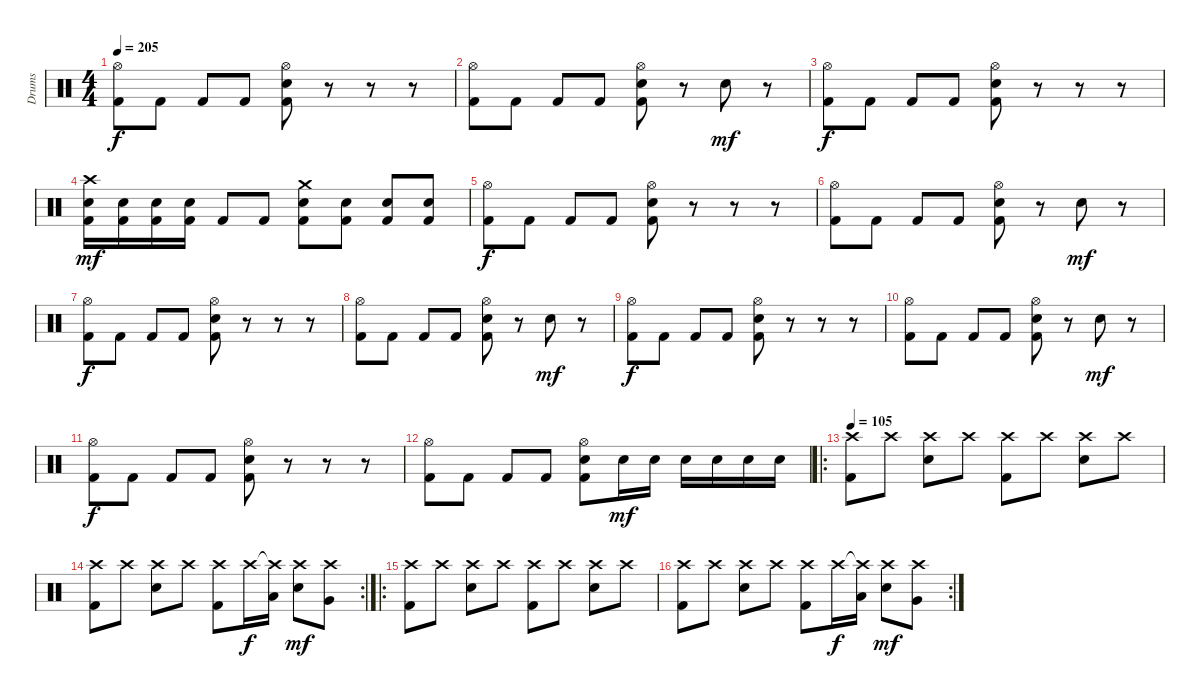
\track ("Drums" "Drums") {instrument percussion}
\staff {score}
\articulation defaults
\ts (4 4)
\tempo 205
\clef neutral
\ks c
("Hi-Hat (open)" "Kick (hit) 2").8{dy f} "Kick (hit) 2".8 "Kick (hit) 2".8 "Kick (hit) 2".8 ("Hi-Hat (open)" "Electric Snare (hit)" "Kick (hit) 2").8 r.8 r.8 r.8 |
("Hi-Hat (open)" "Kick (hit) 2").8 "Kick (hit) 2".8 "Kick (hit) 2".8 "Kick (hit) 2".8 ("Hi-Hat (open)" "Electric Snare (hit)" "Kick (hit) 2").8 r.8 "Electric Snare (hit)".8{dy mf} r.8 |
("Hi-Hat (open)" "Kick (hit) 2").8{dy f} "Kick (hit) 2".8 "Kick (hit) 2".8 "Kick (hit) 2".8 ("Hi-Hat (open)" "Electric Snare (hit)" "Kick (hit) 2").8 r.8 r.8 r.8 |
("Crash high (hit)" "Electric Snare (hit)" "Kick (hit) 2").16{dy mf} ("Electric Snare (hit)" "Kick (hit) 2").16 ("Electric Snare (hit)" "Kick (hit) 2").16 ("Electric Snare (hit)" "Kick (hit) 2").16 "Kick (hit) 2".8 "Kick (hit) 2".8 ("Crash medium (hit)" "Electric Snare (hit)" "Kick (hit) 2").8 ("Electric Snare (hit)" "Kick (hit) 2").8 ("Electric Snare (hit)" "Kick (hit) 2").8 ("Electric Snare (hit)" "Kick (hit) 2").8 |
("Hi-Hat (open)" "Kick (hit) 2").8{dy f} "Kick (hit) 2".8 "Kick (hit) 2".8 "Kick (hit) 2".8 ("Hi-Hat (open)" "Electric Snare (hit)" "Kick (hit) 2").8 r.8 r.8 r.8 |
("Hi-Hat (open)" "Kick (hit) 2").8 "Kick (hit) 2".8 "Kick (hit) 2".8 "Kick (hit) 2".8 ("Hi-Hat (open)" "Electric Snare (hit)" "Kick (hit) 2").8 r.8 "Electric Snare (hit)".8{dy mf} r.8 |
("Hi-Hat (open)" "Kick (hit) 2").8{dy f} "Kick (hit) 2".8 "Kick (hit) 2".8 "Kick (hit) 2".8 ("Hi-Hat (open)" "Electric Snare (hit)" "Kick (hit) 2").8 r.8 r.8 r.8 |
("Hi-Hat (open)" "Kick (hit) 2").8 "Kick (hit) 2".8 "Kick (hit) 2".8 "Kick (hit) 2".8 ("Hi-Hat (open)" "Electric Snare (hit)" "Kick (hit) 2").8 r.8 "Electric Snare (hit)".8{dy mf} r.8 |
("Hi-Hat (open)" "Kick (hit) 2").8{dy f} "Kick (hit) 2".8 "Kick (hit) 2".8 "Kick (hit) 2".8 ("Hi-Hat (open)" "Electric Snare (hit)" "Kick (hit) 2").8 r.8 r.8 r.8 |
("Hi-Hat (open)" "Kick (hit) 2").8 "Kick (hit) 2".8 "Kick (hit) 2".8 "Kick (hit) 2".8 ("Hi-Hat (open)" "Electric Snare (hit)" "Kick (hit) 2").8 r.8 "Electric Snare (hit)".8{dy mf} r.8 |
("Hi-Hat (open)" "Kick (hit) 2").8{dy f} "Kick (hit) 2".8 "Kick (hit) 2".8 "Kick (hit) 2".8 ("Hi-Hat (open)" "Electric Snare (hit)" "Kick (hit) 2").8 r.8 r.8 r.8 |
("Hi-Hat (open)" "Kick (hit) 2").8 "Kick (hit) 2".8 "Kick (hit) 2".8 "Kick (hit) 2".8 ("Hi-Hat (open)" "Electric Snare (hit)" "Kick (hit) 2").8 "Electric Snare (hit)".16{dy mf} "Electric Snare (hit)".16 "Electric Snare (hit)".16 "Electric Snare (hit)".16 "Electric Snare (hit)".16 "Electric Snare (hit)".16 |
\ro
\tempo 105
("Crash high (hit)" "Kick (hit) 2").8 "Crash high (hit)".8 ("Crash high (hit)" "Electric Snare (hit)").8 "Crash high (hit)".8 ("Crash high (hit)" "Kick (hit) 2").8 "Crash high (hit)".8 ("Crash high (hit)" "Electric Snare (hit)").8 "Crash high (hit)".8 |
\rc 2
("Crash high (hit)" "Kick (hit) 2").8 "Crash high (hit)".8 ("Crash high (hit)" "Electric Snare (hit)").8 "Crash high (hit)".8 ("Crash high (hit)" "Kick (hit) 2").8 "Crash high (hit)".16{dy f} ("Crash high (hit)"{t} "Low Tom (hit)").16 ("Crash high (hit)" "Electric Snare (hit)").8{dy mf} ("Crash high (hit)" "Very Low Tom (hit)").8 |
\ro
("Crash high (hit)" "Kick (hit) 2").8 "Crash high (hit)".8 ("Crash high (hit)" "Electric Snare (hit)").8 "Crash high (hit)".8 ("Crash high (hit)" "Kick (hit) 2").8 "Crash high (hit)".8 ("Crash high (hit)" "Electric Snare (hit)").8 "Crash high (hit)".8 |
\rc 2
("Crash high (hit)" "Kick (hit) 2").8 "Crash high (hit)".8 ("Crash high (hit)" "Electric Snare (hit)").8 "Crash high (hit)".8 ("Crash high (hit)" "Kick (hit) 2").8 "Crash high (hit)".16{dy f} ("Crash high (hit)"{t} "Low Tom (hit)").16 ("Crash high (hit)" "Electric Snare (hit)").8{dy mf} ("Crash high (hit)" "Very Low Tom (hit)").8
